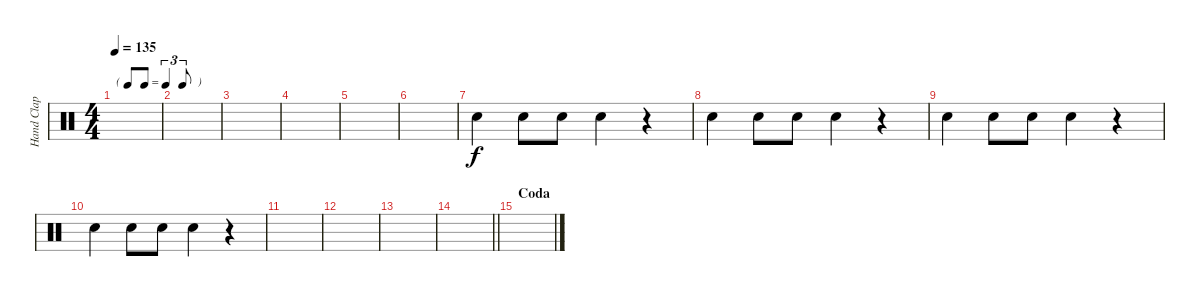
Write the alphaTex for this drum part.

\track ("Hand Clap" "Hand Clap") {instrument percussion}
\staff {score}
\articulation defaults
\ts (4 4)
\tf triplet8th
\tempo 135
\clef neutral
\ks c
|
|
|
|
|
|
"Hand Clap (hit)".4 "Hand Clap (hit)".8 "Hand Clap (hit)".8 "Hand Clap (hit)".4 r.4 |
"Hand Clap (hit)".4 "Hand Clap (hit)".8 "Hand Clap (hit)".8 "Hand Clap (hit)".4 r.4 |
"Hand Clap (hit)".4 "Hand Clap (hit)".8 "Hand Clap (hit)".8 "Hand Clap (hit)".4 r.4 |
"Hand Clap (hit)".4 "Hand Clap (hit)".8 "Hand Clap (hit)".8 "Hand Clap (hit)".4 r.4 |
|
|
|
\barLineRight lightlight
|
\section ("" "Coda")
